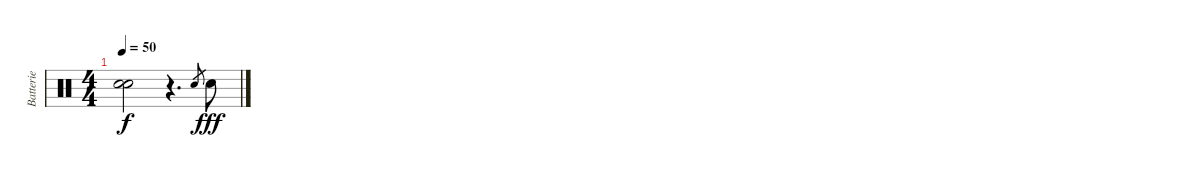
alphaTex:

\track ("Batterie" "Batterie") {instrument percussion}
\staff {score}
\articulation defaults
\ts (4 4)
\tempo 50
\clef neutral
\ks c
("Snare (hit)"{t} "Snare (hit)"{t}).2{dy f} r.4{d} "Electric Snare (hit)".8{gr} "Electric Snare (hit)".8{dy fff}
